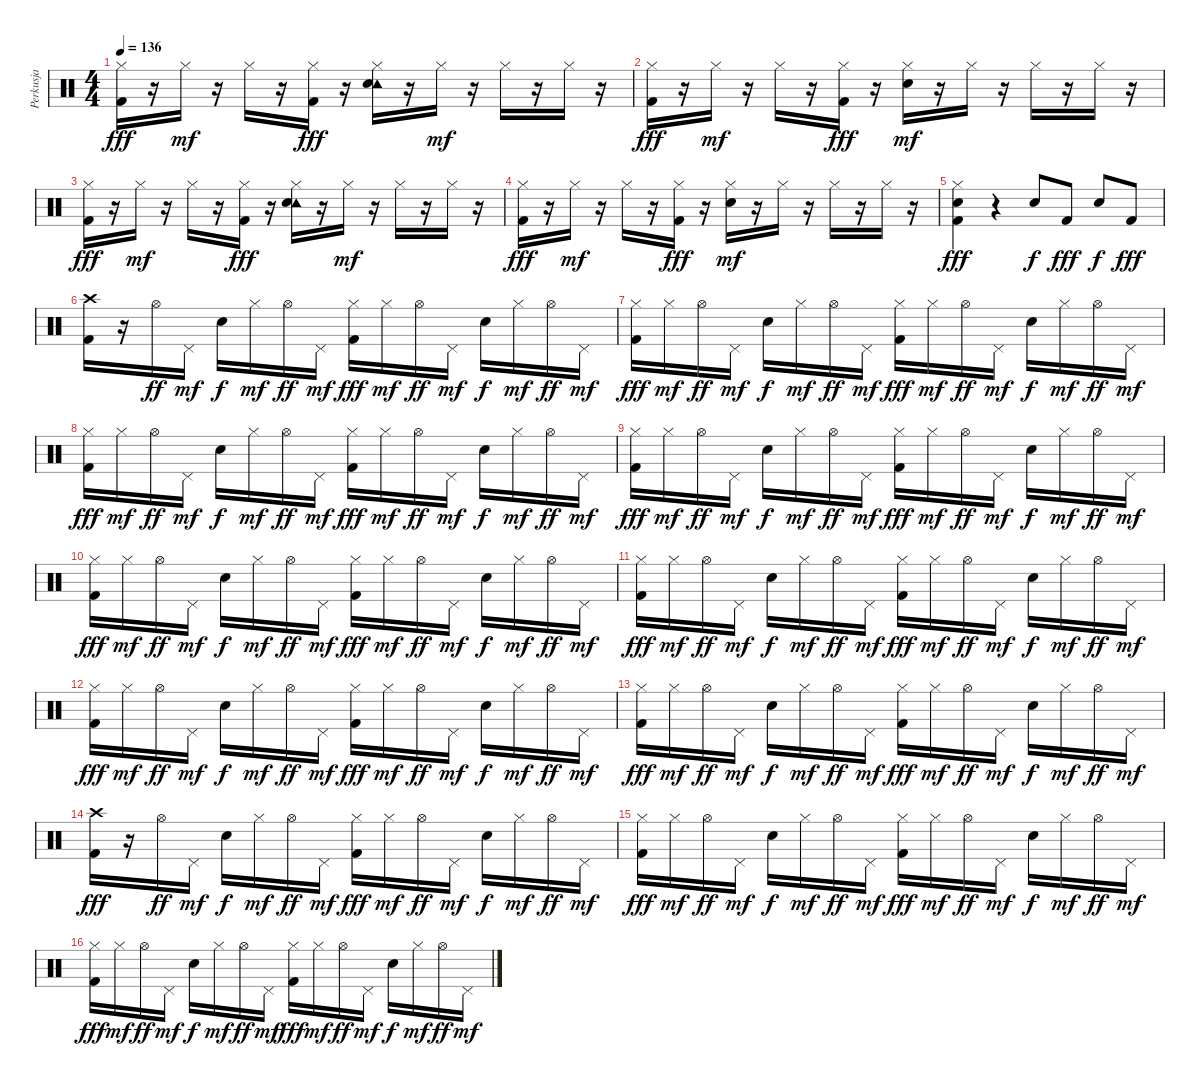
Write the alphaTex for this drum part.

\track ("Perkusja" "Perkusja") {instrument percussion}
\staff {score}
\articulation defaults
\ts (4 4)
\tempo 136
\clef neutral
\ks c
("Hi-Hat (closed)" "Kick (hit) 2").16{dy fff} r.16 "Hi-Hat (closed)".16{dy mf} r.16 "Hi-Hat (closed)".16 r.16 ("Hi-Hat (closed)" "Kick (hit) 2").16{dy fff} r.16 ("Hi-Hat (closed)" "Tambourine (hit)" "Snare (hit) 2").16 r.16 "Hi-Hat (closed)".16{dy mf} r.16 "Hi-Hat (closed)".16 r.16 "Hi-Hat (closed)".16 r.16 |
("Hi-Hat (closed)" "Kick (hit) 2").16{dy fff} r.16 "Hi-Hat (closed)".16{dy mf} r.16 "Hi-Hat (closed)".16 r.16 ("Hi-Hat (closed)" "Kick (hit) 2").16{dy fff} r.16 ("Hi-Hat (closed)" "Snare (hit) 2").16{dy mf} r.16 "Hi-Hat (closed)".16 r.16 "Hi-Hat (closed)".16 r.16 "Hi-Hat (closed)".16 r.16 |
("Hi-Hat (closed)" "Kick (hit) 2").16{dy fff} r.16 "Hi-Hat (closed)".16{dy mf} r.16 "Hi-Hat (closed)".16 r.16 ("Hi-Hat (closed)" "Kick (hit) 2").16{dy fff} r.16 ("Hi-Hat (closed)" "Tambourine (hit)" "Snare (hit) 2").16 r.16 "Hi-Hat (closed)".16{dy mf} r.16 "Hi-Hat (closed)".16 r.16 "Hi-Hat (closed)".16 r.16 |
("Hi-Hat (closed)" "Kick (hit) 2").16{dy fff} r.16 "Hi-Hat (closed)".16{dy mf} r.16 "Hi-Hat (closed)".16 r.16 ("Hi-Hat (closed)" "Kick (hit) 2").16{dy fff} r.16 ("Hi-Hat (closed)" "Snare (hit) 2").16{dy mf} r.16 "Hi-Hat (closed)".16 r.16 "Hi-Hat (closed)".16 r.16 "Hi-Hat (closed)".16 r.16 |
("Hi-Hat (closed)" "Snare (hit) 2" "Kick (hit) 2").4{dy fff} r.4 "Snare (hit) 2".8{dy f} "Kick (hit) 2".8{dy fff} "Snare (hit) 2".8{dy f} "Kick (hit) 2".8{dy fff} |
("Crash high (hit)" "Kick (hit) 2").16 r.16 "Hi-Hat (open)".16{dy ff} "Pedal Hi-Hat (hit)".16{dy mf} "Snare (hit) 2".16{dy f} "Hi-Hat (closed)".16{dy mf} "Hi-Hat (open)".16{dy ff} "Pedal Hi-Hat (hit)".16{dy mf} ("Hi-Hat (closed)" "Kick (hit) 2").16{dy fff} "Hi-Hat (closed)".16{dy mf} "Hi-Hat (open)".16{dy ff} "Pedal Hi-Hat (hit)".16{dy mf} "Snare (hit) 2".16{dy f} "Hi-Hat (closed)".16{dy mf} "Hi-Hat (open)".16{dy ff} "Pedal Hi-Hat (hit)".16{dy mf} |
("Hi-Hat (closed)" "Kick (hit) 2").16{dy fff} "Hi-Hat (closed)".16{dy mf} "Hi-Hat (open)".16{dy ff} "Pedal Hi-Hat (hit)".16{dy mf} "Snare (hit) 2".16{dy f} "Hi-Hat (closed)".16{dy mf} "Hi-Hat (open)".16{dy ff} "Pedal Hi-Hat (hit)".16{dy mf} ("Hi-Hat (closed)" "Kick (hit) 2").16{dy fff} "Hi-Hat (closed)".16{dy mf} "Hi-Hat (open)".16{dy ff} "Pedal Hi-Hat (hit)".16{dy mf} "Snare (hit) 2".16{dy f} "Hi-Hat (closed)".16{dy mf} "Hi-Hat (open)".16{dy ff} "Pedal Hi-Hat (hit)".16{dy mf} |
("Hi-Hat (closed)" "Kick (hit) 2").16{dy fff} "Hi-Hat (closed)".16{dy mf} "Hi-Hat (open)".16{dy ff} "Pedal Hi-Hat (hit)".16{dy mf} "Snare (hit) 2".16{dy f} "Hi-Hat (closed)".16{dy mf} "Hi-Hat (open)".16{dy ff} "Pedal Hi-Hat (hit)".16{dy mf} ("Hi-Hat (closed)" "Kick (hit) 2").16{dy fff} "Hi-Hat (closed)".16{dy mf} "Hi-Hat (open)".16{dy ff} "Pedal Hi-Hat (hit)".16{dy mf} "Snare (hit) 2".16{dy f} "Hi-Hat (closed)".16{dy mf} "Hi-Hat (open)".16{dy ff} "Pedal Hi-Hat (hit)".16{dy mf} |
("Hi-Hat (closed)" "Kick (hit) 2").16{dy fff} "Hi-Hat (closed)".16{dy mf} "Hi-Hat (open)".16{dy ff} "Pedal Hi-Hat (hit)".16{dy mf} "Snare (hit) 2".16{dy f} "Hi-Hat (closed)".16{dy mf} "Hi-Hat (open)".16{dy ff} "Pedal Hi-Hat (hit)".16{dy mf} ("Hi-Hat (closed)" "Kick (hit) 2").16{dy fff} "Hi-Hat (closed)".16{dy mf} "Hi-Hat (open)".16{dy ff} "Pedal Hi-Hat (hit)".16{dy mf} "Snare (hit) 2".16{dy f} "Hi-Hat (closed)".16{dy mf} "Hi-Hat (open)".16{dy ff} "Pedal Hi-Hat (hit)".16{dy mf} |
("Hi-Hat (closed)" "Kick (hit) 2").16{dy fff} "Hi-Hat (closed)".16{dy mf} "Hi-Hat (open)".16{dy ff} "Pedal Hi-Hat (hit)".16{dy mf} "Snare (hit) 2".16{dy f} "Hi-Hat (closed)".16{dy mf} "Hi-Hat (open)".16{dy ff} "Pedal Hi-Hat (hit)".16{dy mf} ("Hi-Hat (closed)" "Kick (hit) 2").16{dy fff} "Hi-Hat (closed)".16{dy mf} "Hi-Hat (open)".16{dy ff} "Pedal Hi-Hat (hit)".16{dy mf} "Snare (hit) 2".16{dy f} "Hi-Hat (closed)".16{dy mf} "Hi-Hat (open)".16{dy ff} "Pedal Hi-Hat (hit)".16{dy mf} |
("Hi-Hat (closed)" "Kick (hit) 2").16{dy fff} "Hi-Hat (closed)".16{dy mf} "Hi-Hat (open)".16{dy ff} "Pedal Hi-Hat (hit)".16{dy mf} "Snare (hit) 2".16{dy f} "Hi-Hat (closed)".16{dy mf} "Hi-Hat (open)".16{dy ff} "Pedal Hi-Hat (hit)".16{dy mf} ("Hi-Hat (closed)" "Kick (hit) 2").16{dy fff} "Hi-Hat (closed)".16{dy mf} "Hi-Hat (open)".16{dy ff} "Pedal Hi-Hat (hit)".16{dy mf} "Snare (hit) 2".16{dy f} "Hi-Hat (closed)".16{dy mf} "Hi-Hat (open)".16{dy ff} "Pedal Hi-Hat (hit)".16{dy mf} |
("Hi-Hat (closed)" "Kick (hit) 2").16{dy fff} "Hi-Hat (closed)".16{dy mf} "Hi-Hat (open)".16{dy ff} "Pedal Hi-Hat (hit)".16{dy mf} "Snare (hit) 2".16{dy f} "Hi-Hat (closed)".16{dy mf} "Hi-Hat (open)".16{dy ff} "Pedal Hi-Hat (hit)".16{dy mf} ("Hi-Hat (closed)" "Kick (hit) 2").16{dy fff} "Hi-Hat (closed)".16{dy mf} "Hi-Hat (open)".16{dy ff} "Pedal Hi-Hat (hit)".16{dy mf} "Snare (hit) 2".16{dy f} "Hi-Hat (closed)".16{dy mf} "Hi-Hat (open)".16{dy ff} "Pedal Hi-Hat (hit)".16{dy mf} |
("Hi-Hat (closed)" "Kick (hit) 2").16{dy fff} "Hi-Hat (closed)".16{dy mf} "Hi-Hat (open)".16{dy ff} "Pedal Hi-Hat (hit)".16{dy mf} "Snare (hit) 2".16{dy f} "Hi-Hat (closed)".16{dy mf} "Hi-Hat (open)".16{dy ff} "Pedal Hi-Hat (hit)".16{dy mf} ("Hi-Hat (closed)" "Kick (hit) 2").16{dy fff} "Hi-Hat (closed)".16{dy mf} "Hi-Hat (open)".16{dy ff} "Pedal Hi-Hat (hit)".16{dy mf} "Snare (hit) 2".16{dy f} "Hi-Hat (closed)".16{dy mf} "Hi-Hat (open)".16{dy ff} "Pedal Hi-Hat (hit)".16{dy mf} |
("Crash high (hit)" "Kick (hit) 2").16{dy fff} r.16 "Hi-Hat (open)".16{dy ff} "Pedal Hi-Hat (hit)".16{dy mf} "Snare (hit) 2".16{dy f} "Hi-Hat (closed)".16{dy mf} "Hi-Hat (open)".16{dy ff} "Pedal Hi-Hat (hit)".16{dy mf} ("Hi-Hat (closed)" "Kick (hit) 2").16{dy fff} "Hi-Hat (closed)".16{dy mf} "Hi-Hat (open)".16{dy ff} "Pedal Hi-Hat (hit)".16{dy mf} "Snare (hit) 2".16{dy f} "Hi-Hat (closed)".16{dy mf} "Hi-Hat (open)".16{dy ff} "Pedal Hi-Hat (hit)".16{dy mf} |
("Hi-Hat (closed)" "Kick (hit) 2").16{dy fff} "Hi-Hat (closed)".16{dy mf} "Hi-Hat (open)".16{dy ff} "Pedal Hi-Hat (hit)".16{dy mf} "Snare (hit) 2".16{dy f} "Hi-Hat (closed)".16{dy mf} "Hi-Hat (open)".16{dy ff} "Pedal Hi-Hat (hit)".16{dy mf} ("Hi-Hat (closed)" "Kick (hit) 2").16{dy fff} "Hi-Hat (closed)".16{dy mf} "Hi-Hat (open)".16{dy ff} "Pedal Hi-Hat (hit)".16{dy mf} "Snare (hit) 2".16{dy f} "Hi-Hat (closed)".16{dy mf} "Hi-Hat (open)".16{dy ff} "Pedal Hi-Hat (hit)".16{dy mf} |
("Hi-Hat (closed)" "Kick (hit) 2").16{dy fff} "Hi-Hat (closed)".16{dy mf} "Hi-Hat (open)".16{dy ff} "Pedal Hi-Hat (hit)".16{dy mf} "Snare (hit) 2".16{dy f} "Hi-Hat (closed)".16{dy mf} "Hi-Hat (open)".16{dy ff} "Pedal Hi-Hat (hit)".16{dy mf} ("Hi-Hat (closed)" "Kick (hit) 2").16{dy fff} "Hi-Hat (closed)".16{dy mf} "Hi-Hat (open)".16{dy ff} "Pedal Hi-Hat (hit)".16{dy mf} "Snare (hit) 2".16{dy f} "Hi-Hat (closed)".16{dy mf} "Hi-Hat (open)".16{dy ff} "Pedal Hi-Hat (hit)".16{dy mf}
